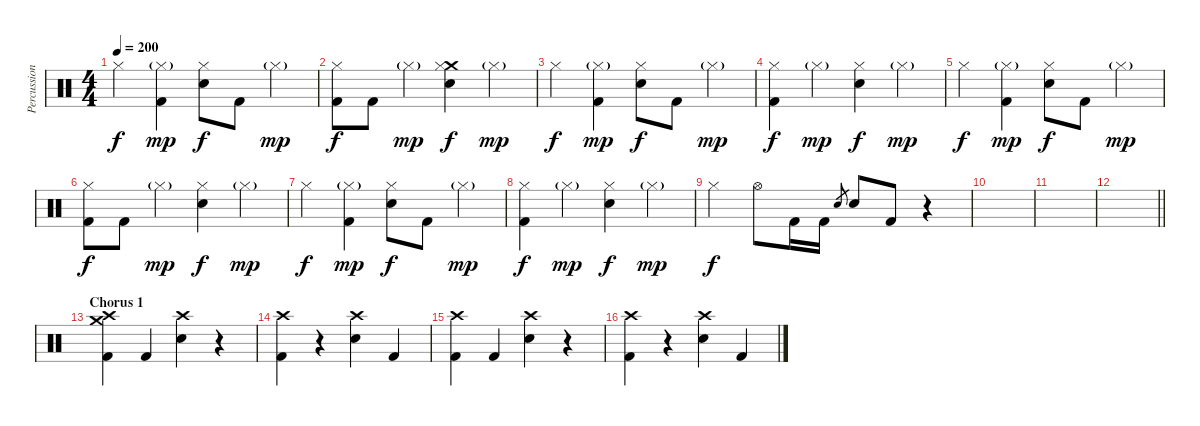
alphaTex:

\track ("Percussion" "Percussion") {instrument percussion}
\staff {score}
\articulation defaults
\ts (4 4)
\tempo 200
\clef neutral
\ks c "Hi-Hat (closed)".4{dy f}
("Hi-Hat (closed)"{g} "Kick (hit) 2").4{dy mp} ("Hi-Hat (closed)" "Electric Snare (hit)").8{dy f} "Kick (hit) 2".8 "Hi-Hat (closed)"{g}.4{dy mp} |
("Hi-Hat (closed)" "Kick (hit) 2").8{dy f} "Kick (hit) 2".8 "Hi-Hat (closed)"{g}.4{dy mp} ("Crash medium (hit)" "Hi-Hat (closed)" "Electric Snare (hit)").4{dy f} "Hi-Hat (closed)"{g}.4{dy mp} |
"Hi-Hat (closed)".4{dy f} ("Hi-Hat (closed)"{g} "Kick (hit) 2").4{dy mp} ("Hi-Hat (closed)" "Electric Snare (hit)").8{dy f} "Kick (hit) 2".8 "Hi-Hat (closed)"{g}.4{dy mp} |
("Hi-Hat (closed)" "Kick (hit) 2").4{dy f} "Hi-Hat (closed)"{g}.4{dy mp} ("Hi-Hat (closed)" "Electric Snare (hit)").4{dy f} "Hi-Hat (closed)"{g}.4{dy mp} |
"Hi-Hat (closed)".4{dy f} ("Hi-Hat (closed)"{g} "Kick (hit) 2").4{dy mp} ("Hi-Hat (closed)" "Electric Snare (hit)").8{dy f} "Kick (hit) 2".8 "Hi-Hat (closed)"{g}.4{dy mp} |
("Hi-Hat (closed)" "Kick (hit) 2").8{dy f} "Kick (hit) 2".8 "Hi-Hat (closed)"{g}.4{dy mp} ("Hi-Hat (closed)" "Electric Snare (hit)").4{dy f} "Hi-Hat (closed)"{g}.4{dy mp} |
"Hi-Hat (closed)".4{dy f} ("Hi-Hat (closed)"{g} "Kick (hit) 2").4{dy mp} ("Hi-Hat (closed)" "Electric Snare (hit)").8{dy f} "Kick (hit) 2".8 "Hi-Hat (closed)"{g}.4{dy mp} |
("Hi-Hat (closed)" "Kick (hit) 2").4{dy f} "Hi-Hat (closed)"{g}.4{dy mp} ("Hi-Hat (closed)" "Electric Snare (hit)").4{dy f} "Hi-Hat (closed)"{g}.4{dy mp} |
"Hi-Hat (closed)".4{dy f} "Hi-Hat (open)".8 "Kick (hit) 2".16 "Kick (hit) 2".16 "Electric Snare (hit)".8{gr} "Electric Snare (hit)".8 "Kick (hit) 2".8 r.4 |
|
|
\barLineRight lightlight
|
\section ("" "Chorus 1")
("Crash high (hit)" "Crash medium (hit)" "Kick (hit) 2").4 "Kick (hit) 2".4 ("Crash high (hit)" "Electric Snare (hit)").4 r.4 |
("Crash high (hit)" "Kick (hit) 2").4 r.4 ("Crash high (hit)" "Electric Snare (hit)").4 "Kick (hit) 2".4 |
("Crash high (hit)" "Kick (hit) 2").4 "Kick (hit) 2".4 ("Crash high (hit)" "Electric Snare (hit)").4 r.4 |
("Crash high (hit)" "Kick (hit) 2").4 r.4 ("Crash high (hit)" "Electric Snare (hit)").4 "Kick (hit) 2".4
